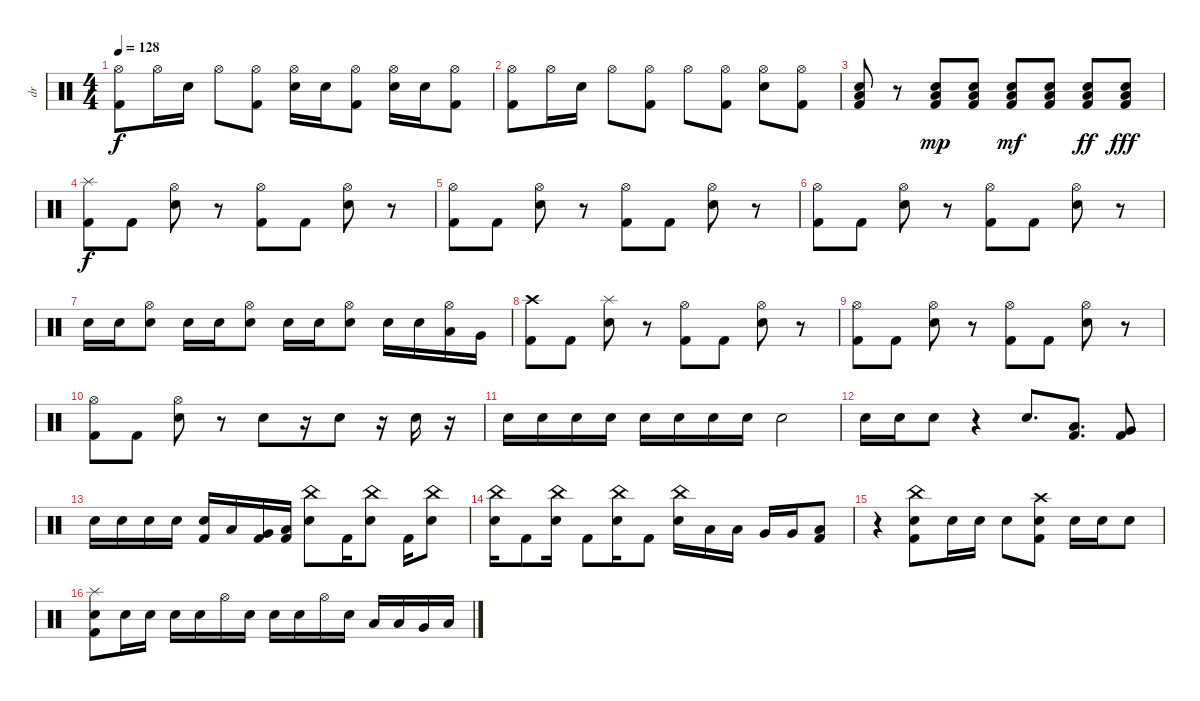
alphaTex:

\track ("dr" "dr") {instrument percussion}
\staff {score}
\articulation defaults
\ts (4 4)
\tempo 128
\clef neutral
\ks c
("Hi-Hat (open)" "Kick (hit) 2").8{dy f} "Hi-Hat (open)".16 "Electric Snare (hit)".16 "Hi-Hat (open)".8 ("Hi-Hat (open)" "Kick (hit) 2").8 ("Hi-Hat (open)" "Electric Snare (hit)").16 "Electric Snare (hit)".16 ("Hi-Hat (open)" "Kick (hit) 2").8 ("Hi-Hat (open)" "Electric Snare (hit)").16 "Electric Snare (hit)".16 ("Hi-Hat (open)" "Kick (hit) 2").8 |
("Hi-Hat (open)" "Kick (hit) 2").8 "Hi-Hat (open)".16 "Electric Snare (hit)".16 "Hi-Hat (open)".8 ("Hi-Hat (open)" "Kick (hit) 2").8 "Hi-Hat (open)".8 ("Hi-Hat (open)" "Kick (hit) 2").8 ("Hi-Hat (open)" "Electric Snare (hit)").8 ("Hi-Hat (open)" "Kick (hit) 2").8 |
("Electric Snare (hit)" "Low Tom (hit)" "Kick (hit) 2").8 r.8 ("Electric Snare (hit)" "Low Tom (hit)" "Kick (hit) 2").8{dy mp} ("Electric Snare (hit)" "Low Tom (hit)" "Kick (hit) 2").8 ("Electric Snare (hit)" "Low Tom (hit)" "Kick (hit) 2").8{dy mf} ("Electric Snare (hit)" "Low Tom (hit)" "Kick (hit) 2").8 ("Electric Snare (hit)" "Low Tom (hit)" "Kick (hit) 2").8{dy ff} ("Electric Snare (hit)" "Low Tom (hit)" "Kick (hit) 2").8{dy fff} |
("Splash (hit)" "Kick (hit) 2").8{dy f} "Kick (hit) 2".8 ("Hi-Hat (open)" "Electric Snare (hit)").8 r.8 ("Hi-Hat (open)" "Kick (hit) 2").8 "Kick (hit) 2".8 ("Hi-Hat (open)" "Electric Snare (hit)").8 r.8 |
("Hi-Hat (open)" "Kick (hit) 2").8 "Kick (hit) 2".8 ("Hi-Hat (open)" "Electric Snare (hit)").8 r.8 ("Hi-Hat (open)" "Kick (hit) 2").8 "Kick (hit) 2".8 ("Hi-Hat (open)" "Electric Snare (hit)").8 r.8 |
("Hi-Hat (open)" "Kick (hit) 2").8 "Kick (hit) 2".8 ("Hi-Hat (open)" "Electric Snare (hit)").8 r.8 ("Hi-Hat (open)" "Kick (hit) 2").8 "Kick (hit) 2".8 ("Hi-Hat (open)" "Electric Snare (hit)").8 r.8 |
"Electric Snare (hit)".16 "Electric Snare (hit)".16 ("Hi-Hat (open)" "Electric Snare (hit)").8 "Electric Snare (hit)".16 "Electric Snare (hit)".16 ("Hi-Hat (open)" "Electric Snare (hit)").8 "Electric Snare (hit)".16 "Electric Snare (hit)".16 ("Hi-Hat (open)" "Electric Snare (hit)").8 "Electric Snare (hit)".16 "Electric Snare (hit)".16 ("Hi-Hat (open)" "Low Tom (hit)").16 "Very Low Tom (hit)".16 |
("Crash high (hit)" "Kick (hit) 2").8 "Kick (hit) 2".8 ("Splash (hit)" "Electric Snare (hit)").8 r.8 ("Hi-Hat (open)" "Kick (hit) 2").8 "Kick (hit) 2".8 ("Hi-Hat (open)" "Electric Snare (hit)").8 r.8 |
("Hi-Hat (open)" "Kick (hit) 2").8 "Kick (hit) 2".8 ("Hi-Hat (open)" "Electric Snare (hit)").8 r.8 ("Hi-Hat (open)" "Kick (hit) 2").8 "Kick (hit) 2".8 ("Hi-Hat (open)" "Electric Snare (hit)").8 r.8 |
("Hi-Hat (open)" "Kick (hit) 2").8 "Kick (hit) 2".8 ("Hi-Hat (open)" "Electric Snare (hit)").8 r.8 "Electric Snare (hit)".8 r.16 "Electric Snare (hit)".8 r.16 "Electric Snare (hit)".16 r.16 |
"Electric Snare (hit)".16 "Electric Snare (hit)".16 "Electric Snare (hit)".16 "Electric Snare (hit)".16 "Electric Snare (hit)".16 "Electric Snare (hit)".16 "Electric Snare (hit)".16 "Electric Snare (hit)".16 "Electric Snare (hit)".2 |
"Electric Snare (hit)".16 "Electric Snare (hit)".16 "Electric Snare (hit)".8 r.4 "Electric Snare (hit)".8{d} ("Low Tom (hit)" "Kick (hit) 2").8{d} ("Very Low Tom (hit)" "Kick (hit) 2").8 |
"Electric Snare (hit)".16 "Electric Snare (hit)".16 "Electric Snare (hit)".16 "Electric Snare (hit)".16 ("Electric Snare (hit)" "Kick (hit) 2").16 "Low Tom (hit)".16 ("Very Low Tom (hit)" "Kick (hit) 2").16 ("Low Floor Tom (hit)" "Kick (hit) 2").16 ("China (hit)" "Electric Snare (hit)").8 "Kick (hit) 2".16 ("China (hit)" "Electric Snare (hit)").8 "Kick (hit) 2".16 ("China (hit)" "Electric Snare (hit)").8 |
("China (hit)" "Electric Snare (hit)").16 "Kick (hit) 2".8 ("China (hit)" "Electric Snare (hit)").16 "Kick (hit) 2".8 ("China (hit)" "Electric Snare (hit)").16 "Kick (hit) 2".8 ("China (hit)" "Electric Snare (hit)").16 "Low Tom (hit)".16 "Low Tom (hit)".16 "Very Low Tom (hit)".16 "Very Low Tom (hit)".16 ("Low Floor Tom (hit)" "Kick (hit) 2").8 |
r.4 ("China (hit)" "Electric Snare (hit)" "Kick (hit) 2").8 "Electric Snare (hit)".16 "Electric Snare (hit)".16 "Electric Snare (hit)".8 ("Crash high (hit)" "Electric Snare (hit)" "Kick (hit) 2").8 "Electric Snare (hit)".16 "Electric Snare (hit)".16 "Electric Snare (hit)".8 |
("Splash (hit)" "Electric Snare (hit)" "Kick (hit) 2").8 "Electric Snare (hit)".16 "Electric Snare (hit)".16 "Electric Snare (hit)".16 "Electric Snare (hit)".16 "Hi-Hat (open)".16 "Electric Snare (hit)".16 "Electric Snare (hit)".16 "Electric Snare (hit)".16 "Hi-Hat (open)".16 "Electric Snare (hit)".16 "Low Tom (hit)".16 "Low Tom (hit)".16 "Very Low Tom (hit)".16 "Low Floor Tom (hit)".16
